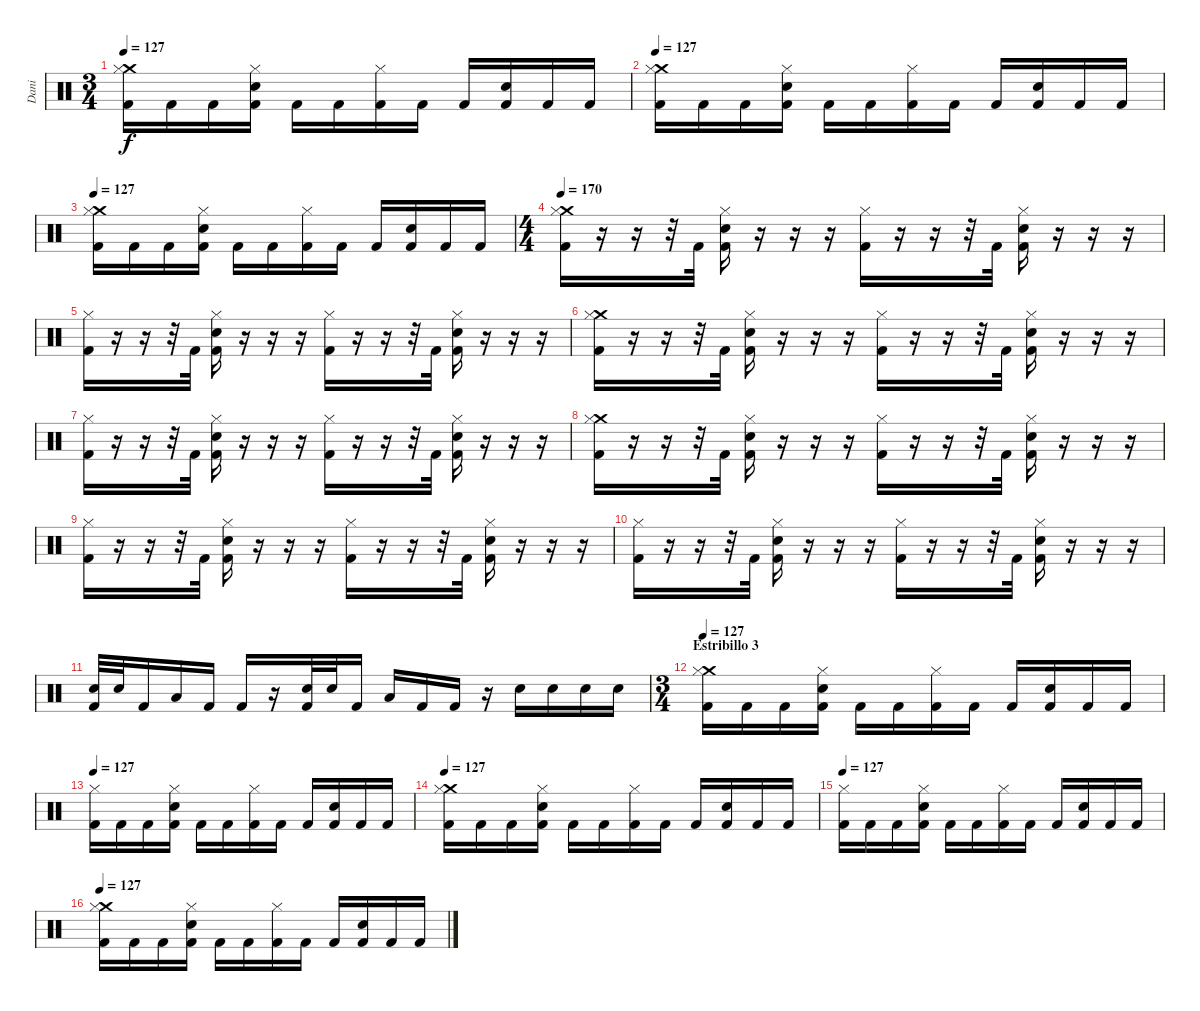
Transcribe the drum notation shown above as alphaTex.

\track ("Dani" "Dani") {instrument percussion}
\staff {score}
\articulation defaults
\ts (3 4)
\tempo 127
\clef neutral
\ks c
("Crash medium (hit)" "Hi-Hat (closed)" "Kick (hit) 2").16{dy f} "Kick (hit) 2".16 "Kick (hit) 2".16 ("Hi-Hat (closed)" "Electric Snare (hit)" "Kick (hit) 2").16 "Kick (hit) 2".16 "Kick (hit) 2".16 ("Hi-Hat (closed)" "Kick (hit) 2").16 "Kick (hit) 2".16 "Kick (hit) 2".16 ("Electric Snare (hit)" "Kick (hit) 2").16 "Kick (hit) 2".16 "Kick (hit) 2".16 |
\tempo 127
("Crash medium (hit)" "Hi-Hat (closed)" "Kick (hit) 2").16 "Kick (hit) 2".16 "Kick (hit) 2".16 ("Hi-Hat (closed)" "Electric Snare (hit)" "Kick (hit) 2").16 "Kick (hit) 2".16 "Kick (hit) 2".16 ("Hi-Hat (closed)" "Kick (hit) 2").16 "Kick (hit) 2".16 "Kick (hit) 2".16 ("Electric Snare (hit)" "Kick (hit) 2").16 "Kick (hit) 2".16 "Kick (hit) 2".16 |
\tempo 127
("Crash medium (hit)" "Hi-Hat (closed)" "Kick (hit) 2").16 "Kick (hit) 2".16 "Kick (hit) 2".16 ("Hi-Hat (closed)" "Electric Snare (hit)" "Kick (hit) 2").16 "Kick (hit) 2".16 "Kick (hit) 2".16 ("Hi-Hat (closed)" "Kick (hit) 2").16 "Kick (hit) 2".16 "Kick (hit) 2".16 ("Electric Snare (hit)" "Kick (hit) 2").16 "Kick (hit) 2".16 "Kick (hit) 2".16 |
\ts (4 4)
\tempo 170
("Crash medium (hit)" "Hi-Hat (closed)" "Kick (hit) 2").16 r.16 r.16 r.32 "Kick (hit) 2".32 ("Hi-Hat (closed)" "Electric Snare (hit)" "Kick (hit) 2").16 r.16 r.16 r.16 ("Hi-Hat (closed)" "Kick (hit) 2").16 r.16 r.16 r.32 "Kick (hit) 2".32 ("Hi-Hat (closed)" "Electric Snare (hit)" "Kick (hit) 2").16 r.16 r.16 r.16 |
("Hi-Hat (closed)" "Kick (hit) 2").16 r.16 r.16 r.32 "Kick (hit) 2".32 ("Hi-Hat (closed)" "Electric Snare (hit)" "Kick (hit) 2").16 r.16 r.16 r.16 ("Hi-Hat (closed)" "Kick (hit) 2").16 r.16 r.16 r.32 "Kick (hit) 2".32 ("Hi-Hat (closed)" "Electric Snare (hit)" "Kick (hit) 2").16 r.16 r.16 r.16 |
("Crash medium (hit)" "Hi-Hat (closed)" "Kick (hit) 2").16 r.16 r.16 r.32 "Kick (hit) 2".32 ("Hi-Hat (closed)" "Electric Snare (hit)" "Kick (hit) 2").16 r.16 r.16 r.16 ("Hi-Hat (closed)" "Kick (hit) 2").16 r.16 r.16 r.32 "Kick (hit) 2".32 ("Hi-Hat (closed)" "Electric Snare (hit)" "Kick (hit) 2").16 r.16 r.16 r.16 |
("Hi-Hat (closed)" "Kick (hit) 2").16 r.16 r.16 r.32 "Kick (hit) 2".32 ("Hi-Hat (closed)" "Electric Snare (hit)" "Kick (hit) 2").16 r.16 r.16 r.16 ("Hi-Hat (closed)" "Kick (hit) 2").16 r.16 r.16 r.32 "Kick (hit) 2".32 ("Hi-Hat (closed)" "Electric Snare (hit)" "Kick (hit) 2").16 r.16 r.16 r.16 |
("Crash medium (hit)" "Hi-Hat (closed)" "Kick (hit) 2").16 r.16 r.16 r.32 "Kick (hit) 2".32 ("Hi-Hat (closed)" "Electric Snare (hit)" "Kick (hit) 2").16 r.16 r.16 r.16 ("Hi-Hat (closed)" "Kick (hit) 2").16 r.16 r.16 r.32 "Kick (hit) 2".32 ("Hi-Hat (closed)" "Electric Snare (hit)" "Kick (hit) 2").16 r.16 r.16 r.16 |
("Hi-Hat (closed)" "Kick (hit) 2").16 r.16 r.16 r.32 "Kick (hit) 2".32 ("Hi-Hat (closed)" "Electric Snare (hit)" "Kick (hit) 2").16 r.16 r.16 r.16 ("Hi-Hat (closed)" "Kick (hit) 2").16 r.16 r.16 r.32 "Kick (hit) 2".32 ("Hi-Hat (closed)" "Electric Snare (hit)" "Kick (hit) 2").16 r.16 r.16 r.16 |
("Hi-Hat (closed)" "Kick (hit) 2").16 r.16 r.16 r.32 "Kick (hit) 2".32 ("Hi-Hat (closed)" "Electric Snare (hit)" "Kick (hit) 2").16 r.16 r.16 r.16 ("Hi-Hat (closed)" "Kick (hit) 2").16 r.16 r.16 r.32 "Kick (hit) 2".32 ("Hi-Hat (closed)" "Electric Snare (hit)" "Kick (hit) 2").16 r.16 r.16 r.16 |
("Electric Snare (hit)" "Kick (hit) 2").32 "Electric Snare (hit)".32 "Kick (hit) 2".16 "Low Tom (hit)".16 "Kick (hit) 2".16 "Kick (hit) 2".16 r.16 ("Electric Snare (hit)" "Kick (hit) 2").32 "Electric Snare (hit)".32 "Kick (hit) 2".16 "Low Tom (hit)".16 "Kick (hit) 2".16 "Kick (hit) 2".16 r.16 "Electric Snare (hit)".16 "Electric Snare (hit)".16 "Electric Snare (hit)".16 "Electric Snare (hit)".16 |
\ts (3 4)
\section ("" "Estribillo 3")
\tempo 127
("Crash medium (hit)" "Hi-Hat (closed)" "Kick (hit) 2").16 "Kick (hit) 2".16 "Kick (hit) 2".16 ("Hi-Hat (closed)" "Electric Snare (hit)" "Kick (hit) 2").16 "Kick (hit) 2".16 "Kick (hit) 2".16 ("Hi-Hat (closed)" "Kick (hit) 2").16 "Kick (hit) 2".16 "Kick (hit) 2".16 ("Electric Snare (hit)" "Kick (hit) 2").16 "Kick (hit) 2".16 "Kick (hit) 2".16 |
\tempo 127
("Hi-Hat (closed)" "Kick (hit) 2").16 "Kick (hit) 2".16 "Kick (hit) 2".16 ("Hi-Hat (closed)" "Electric Snare (hit)" "Kick (hit) 2").16 "Kick (hit) 2".16 "Kick (hit) 2".16 ("Hi-Hat (closed)" "Kick (hit) 2").16 "Kick (hit) 2".16 "Kick (hit) 2".16 ("Electric Snare (hit)" "Kick (hit) 2").16 "Kick (hit) 2".16 "Kick (hit) 2".16 |
\tempo 127
("Crash medium (hit)" "Hi-Hat (closed)" "Kick (hit) 2").16 "Kick (hit) 2".16 "Kick (hit) 2".16 ("Hi-Hat (closed)" "Electric Snare (hit)" "Kick (hit) 2").16 "Kick (hit) 2".16 "Kick (hit) 2".16 ("Hi-Hat (closed)" "Kick (hit) 2").16 "Kick (hit) 2".16 "Kick (hit) 2".16 ("Electric Snare (hit)" "Kick (hit) 2").16 "Kick (hit) 2".16 "Kick (hit) 2".16 |
\tempo 127
("Hi-Hat (closed)" "Kick (hit) 2").16 "Kick (hit) 2".16 "Kick (hit) 2".16 ("Hi-Hat (closed)" "Electric Snare (hit)" "Kick (hit) 2").16 "Kick (hit) 2".16 "Kick (hit) 2".16 ("Hi-Hat (closed)" "Kick (hit) 2").16 "Kick (hit) 2".16 "Kick (hit) 2".16 ("Electric Snare (hit)" "Kick (hit) 2").16 "Kick (hit) 2".16 "Kick (hit) 2".16 |
\tempo 127
("Crash medium (hit)" "Hi-Hat (closed)" "Kick (hit) 2").16 "Kick (hit) 2".16 "Kick (hit) 2".16 ("Hi-Hat (closed)" "Electric Snare (hit)" "Kick (hit) 2").16 "Kick (hit) 2".16 "Kick (hit) 2".16 ("Hi-Hat (closed)" "Kick (hit) 2").16 "Kick (hit) 2".16 "Kick (hit) 2".16 ("Electric Snare (hit)" "Kick (hit) 2").16 "Kick (hit) 2".16 "Kick (hit) 2".16
